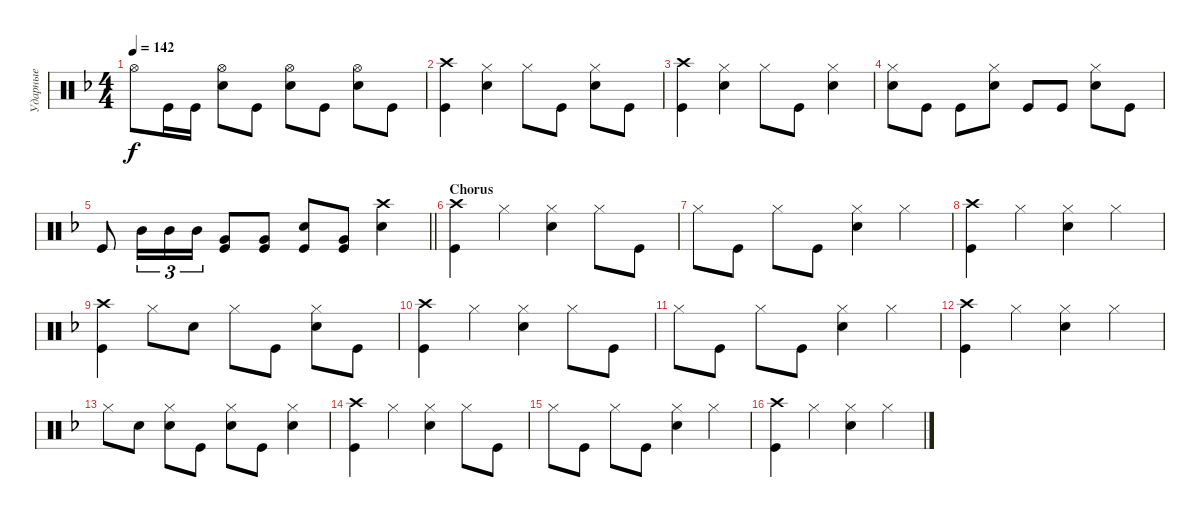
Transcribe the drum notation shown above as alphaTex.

\track ("Ударные" "Ударные") {instrument percussion}
\staff {score}
\articulation defaults
\ts (4 4)
\tempo 142
\clef neutral
\ks dminor "Hi-Hat (open)".8{dy f} "Kick (hit)".16 "Kick (hit)".16
("Hi-Hat (open)" "Snare (hit) 2").8 "Kick (hit)".8 ("Snare (hit) 2" "Hi-Hat (open)").8 "Kick (hit)".8 ("Snare (hit) 2" "Hi-Hat (open)").8 "Kick (hit)".8 |
("Kick (hit)" "Crash high (hit)").4 ("Snare (hit) 2" "Hi-Hat (closed)").4 "Hi-Hat (closed)".8 "Kick (hit)".8 ("Snare (hit) 2" "Hi-Hat (closed)").8 "Kick (hit)".8 |
("Kick (hit)" "Crash high (hit)").4 ("Snare (hit) 2" "Hi-Hat (closed)").4 "Hi-Hat (closed)".8 "Kick (hit)".8 ("Snare (hit) 2" "Hi-Hat (closed)").4 |
("Snare (hit) 2" "Hi-Hat (closed)").8 "Kick (hit)".8 "Kick (hit)".8 ("Snare (hit) 2" "Hi-Hat (closed)").8 "Kick (hit)".8 "Kick (hit)".8 ("Snare (hit) 2" "Hi-Hat (closed)").8 "Kick (hit)".8 |
\barLineRight lightlight "Kick (hit)".8 "Mid Tom (hit)".16{tu (3 2)} "Mid Tom (hit)".16{tu (3 2)} "Mid Tom (hit)".16{tu (3 2)}
("Kick (hit)" "Very Low Tom (hit)").8 ("Kick (hit)" "Very Low Tom (hit)").8 ("Snare (hit) 2" "Kick (hit)").8 ("Kick (hit)" "Very Low Tom (hit)").8 ("Snare (hit) 2" "Crash high (hit)").4 |
\section ("" "Chorus")
("Kick (hit)" "Crash high (hit)").4 "Hi-Hat (closed)".4 ("Hi-Hat (closed)" "Snare (hit) 2").4 "Hi-Hat (closed)".8 "Kick (hit)".8 |
"Hi-Hat (closed)".8 "Kick (hit)".8 "Hi-Hat (closed)".8 "Kick (hit)".8 ("Snare (hit) 2" "Hi-Hat (closed)").4 "Hi-Hat (closed)".4 |
("Kick (hit)" "Crash high (hit)").4 "Hi-Hat (closed)".4 ("Hi-Hat (closed)" "Snare (hit) 2").4 "Hi-Hat (closed)".4 |
("Kick (hit)" "Crash high (hit)").4 "Hi-Hat (closed)".8 "Snare (hit) 2".8 "Hi-Hat (closed)".8 "Kick (hit)".8 ("Snare (hit) 2" "Hi-Hat (closed)").8 "Kick (hit)".8 |
("Kick (hit)" "Crash high (hit)").4 "Hi-Hat (closed)".4 ("Hi-Hat (closed)" "Snare (hit) 2").4 "Hi-Hat (closed)".8 "Kick (hit)".8 |
"Hi-Hat (closed)".8 "Kick (hit)".8 "Hi-Hat (closed)".8 "Kick (hit)".8 ("Snare (hit) 2" "Hi-Hat (closed)").4 "Hi-Hat (closed)".4 |
("Kick (hit)" "Crash high (hit)").4 "Hi-Hat (closed)".4 ("Hi-Hat (closed)" "Snare (hit) 2").4 "Hi-Hat (closed)".4 |
"Hi-Hat (closed)".8 "Snare (hit) 2".8 ("Snare (hit) 2" "Hi-Hat (closed)").8 "Kick (hit)".8 ("Snare (hit) 2" "Hi-Hat (closed)").8 "Kick (hit)".8 ("Snare (hit) 2" "Hi-Hat (closed)").4 |
("Kick (hit)" "Crash high (hit)").4 "Hi-Hat (closed)".4 ("Hi-Hat (closed)" "Snare (hit) 2").4 "Hi-Hat (closed)".8 "Kick (hit)".8 |
"Hi-Hat (closed)".8 "Kick (hit)".8 "Hi-Hat (closed)".8 "Kick (hit)".8 ("Snare (hit) 2" "Hi-Hat (closed)").4 "Hi-Hat (closed)".4 |
("Kick (hit)" "Crash high (hit)").4 "Hi-Hat (closed)".4 ("Hi-Hat (closed)" "Snare (hit) 2").4 "Hi-Hat (closed)".4
